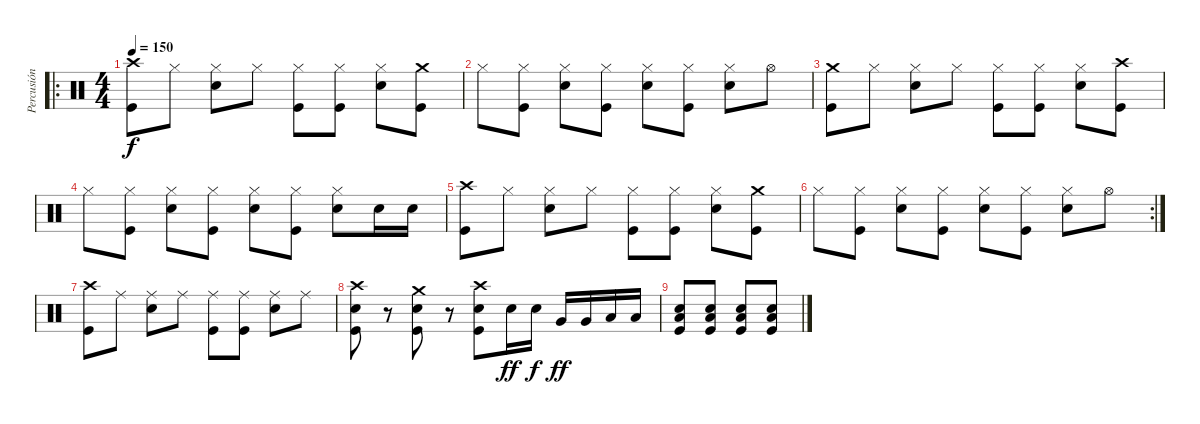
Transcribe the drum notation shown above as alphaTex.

\track ("Percusión" "Percusión") {instrument percussion}
\staff {score}
\articulation defaults
\ro
\ts (4 4)
\tempo 150
\clef neutral
\ks c
("Crash high (hit)" "Kick (hit)").8{dy f} "Hi-Hat (closed)".8 ("Hi-Hat (closed)" "Snare (hit) 2").8 "Hi-Hat (closed)".8 ("Hi-Hat (closed)" "Kick (hit)").8 ("Hi-Hat (closed)" "Kick (hit)").8 ("Hi-Hat (closed)" "Snare (hit) 2").8 ("Crash medium (hit)" "Kick (hit)").8 |
"Hi-Hat (closed)".8 ("Hi-Hat (closed)" "Kick (hit)").8 ("Hi-Hat (closed)" "Snare (hit) 2").8 ("Hi-Hat (closed)" "Kick (hit)").8 ("Hi-Hat (closed)" "Snare (hit) 2").8 ("Hi-Hat (closed)" "Kick (hit)").8 ("Hi-Hat (closed)" "Snare (hit) 2").8 "Hi-Hat (open)".8 |
("Crash medium (hit)" "Kick (hit)").8 "Hi-Hat (closed)".8 ("Hi-Hat (closed)" "Snare (hit) 2").8 "Hi-Hat (closed)".8 ("Hi-Hat (closed)" "Kick (hit)").8 ("Hi-Hat (closed)" "Kick (hit)").8 ("Hi-Hat (closed)" "Snare (hit) 2").8 ("Crash high (hit)" "Kick (hit)").8 |
"Hi-Hat (closed)".8 ("Hi-Hat (closed)" "Kick (hit)").8 ("Hi-Hat (closed)" "Snare (hit) 2").8 ("Hi-Hat (closed)" "Kick (hit)").8 ("Hi-Hat (closed)" "Snare (hit) 2").8 ("Hi-Hat (closed)" "Kick (hit)").8 ("Hi-Hat (closed)" "Snare (hit) 2").8 "Snare (hit) 2".16 "Snare (hit) 2".16 |
("Crash high (hit)" "Kick (hit)").8 "Hi-Hat (closed)".8 ("Hi-Hat (closed)" "Snare (hit) 2").8 "Hi-Hat (closed)".8 ("Hi-Hat (closed)" "Kick (hit)").8 ("Hi-Hat (closed)" "Kick (hit)").8 ("Hi-Hat (closed)" "Snare (hit) 2").8 ("Crash medium (hit)" "Kick (hit)").8 |
\rc 2 "Hi-Hat (closed)".8
("Hi-Hat (closed)" "Kick (hit)").8 ("Hi-Hat (closed)" "Snare (hit) 2").8 ("Hi-Hat (closed)" "Kick (hit)").8 ("Hi-Hat (closed)" "Snare (hit) 2").8 ("Hi-Hat (closed)" "Kick (hit)").8 ("Hi-Hat (closed)" "Snare (hit) 2").8 "Hi-Hat (open)".8 |
("Crash high (hit)" "Kick (hit)").8 "Ride (middle)".8 ("Ride (middle)" "Snare (hit) 2").8 "Ride (middle)".8 ("Ride (middle)" "Kick (hit)").8 ("Ride (middle)" "Kick (hit)").8 ("Ride (middle)" "Snare (hit) 2").8 "Ride (middle)".8 |
("Crash high (hit)" "Snare (hit) 2" "Kick (hit)").8 r.8 ("Crash medium (hit)" "Snare (hit) 2" "Kick (hit)").8 r.8 ("Crash high (hit)" "Snare (hit) 2" "Kick (hit)").8 "Snare (hit) 2".16{dy ff} "Snare (hit) 2".16{dy f} "Very Low Tom (hit)".16{dy ff} "Very Low Tom (hit)".16 "Low Tom (hit)".16 "Low Tom (hit)".16 |
("Snare (hit) 2" "Kick (hit)" "Low Floor Tom (hit)").8 ("Snare (hit) 2" "Kick (hit)" "Low Floor Tom (hit)").8 ("Snare (hit) 2" "Kick (hit)" "Low Floor Tom (hit)").8 ("Snare (hit) 2" "Kick (hit)" "Low Floor Tom (hit)").8
